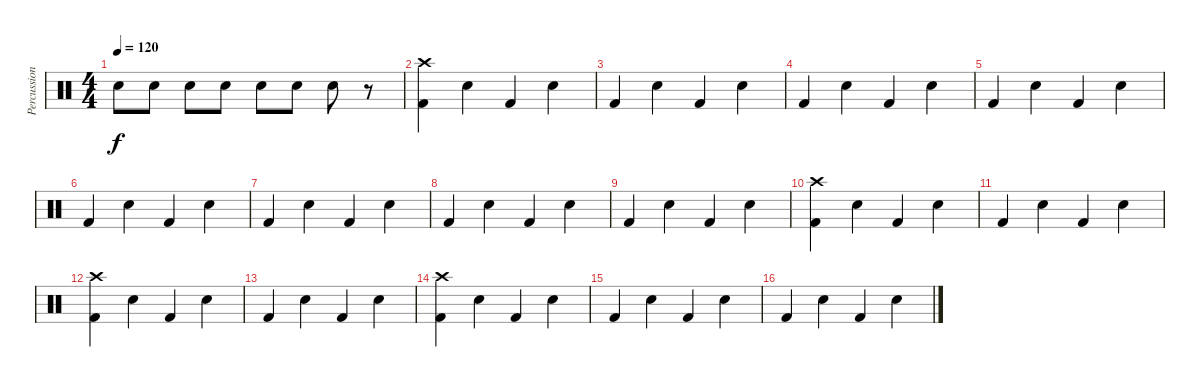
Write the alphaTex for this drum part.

\track ("Percussions" "Percussion") {instrument percussion}
\staff {score}
\articulation defaults
\ts (4 4)
\tempo 120
\clef neutral
\ks c "Snare (hit) 2".8{dy f} "Snare (hit) 2".8 "Snare (hit) 2".8 "Snare (hit) 2".8 "Snare (hit) 2".8 "Snare (hit) 2".8 "Snare (hit) 2".8
r.8 |
("Crash high (hit)" "Kick (hit) 2").4 "Snare (hit) 2".4 "Kick (hit) 2".4 "Snare (hit) 2".4 |
"Kick (hit) 2".4 "Snare (hit) 2".4 "Kick (hit) 2".4 "Snare (hit) 2".4 |
"Kick (hit) 2".4 "Snare (hit) 2".4 "Kick (hit) 2".4 "Snare (hit) 2".4 |
"Kick (hit) 2".4 "Snare (hit) 2".4 "Kick (hit) 2".4 "Snare (hit) 2".4 |
"Kick (hit) 2".4 "Snare (hit) 2".4 "Kick (hit) 2".4 "Snare (hit) 2".4 |
"Kick (hit) 2".4 "Snare (hit) 2".4 "Kick (hit) 2".4 "Snare (hit) 2".4 |
"Kick (hit) 2".4 "Snare (hit) 2".4 "Kick (hit) 2".4 "Snare (hit) 2".4 |
"Kick (hit) 2".4 "Snare (hit) 2".4 "Kick (hit) 2".4 "Snare (hit) 2".4 |
("Crash high (hit)" "Kick (hit) 2").4 "Snare (hit) 2".4 "Kick (hit) 2".4 "Snare (hit) 2".4 |
"Kick (hit) 2".4 "Snare (hit) 2".4 "Kick (hit) 2".4 "Snare (hit) 2".4 |
("Crash high (hit)" "Kick (hit) 2").4 "Snare (hit) 2".4 "Kick (hit) 2".4 "Snare (hit) 2".4 |
"Kick (hit) 2".4 "Snare (hit) 2".4 "Kick (hit) 2".4 "Snare (hit) 2".4 |
("Crash high (hit)" "Kick (hit) 2").4 "Snare (hit) 2".4 "Kick (hit) 2".4 "Snare (hit) 2".4 |
"Kick (hit) 2".4 "Snare (hit) 2".4 "Kick (hit) 2".4 "Snare (hit) 2".4 |
"Kick (hit) 2".4 "Snare (hit) 2".4 "Kick (hit) 2".4 "Snare (hit) 2".4
